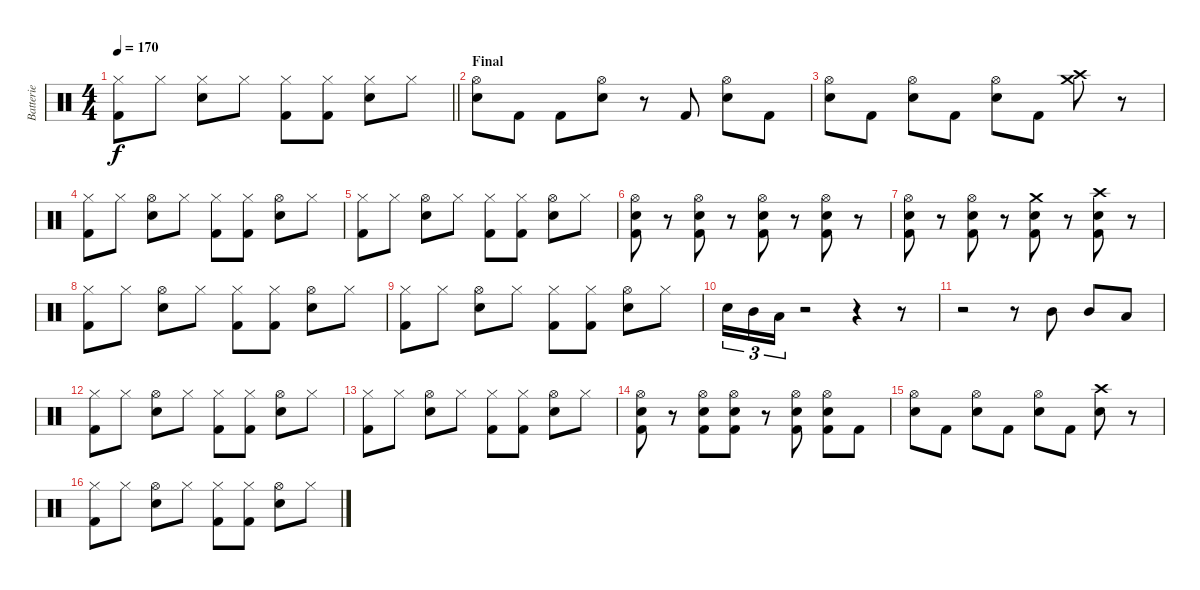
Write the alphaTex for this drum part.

\track ("Batterie" "Batterie") {instrument percussion}
\staff {score}
\articulation defaults
\ts (4 4)
\tempo 170
\clef neutral
\barLineRight lightlight
\ks c
("Kick (hit) 2" "Hi-Hat (closed)").8{dy f} "Hi-Hat (closed)".8 ("Snare (hit) 2" "Hi-Hat (closed)").8 "Hi-Hat (closed)".8 ("Kick (hit) 2" "Hi-Hat (closed)").8 ("Kick (hit) 2" "Hi-Hat (closed)").8 ("Snare (hit) 2" "Hi-Hat (closed)").8 "Hi-Hat (closed)".8 |
\section ("" "Final")
("Snare (hit) 2" "Hi-Hat (open)").8 "Kick (hit) 2".8 "Kick (hit) 2".8 ("Snare (hit) 2" "Hi-Hat (open)").8 r.8 "Kick (hit) 2".8 ("Snare (hit) 2" "Hi-Hat (open)").8 "Kick (hit) 2".8 |
("Snare (hit) 2" "Hi-Hat (open)").8 "Kick (hit) 2".8 ("Snare (hit) 2" "Hi-Hat (open)").8 "Kick (hit) 2".8 ("Snare (hit) 2" "Hi-Hat (open)").8 "Kick (hit) 2".8 ("Crash high (hit)" "Crash medium (hit)").8 r.8 |
("Kick (hit) 2" "Hi-Hat (closed)").8 "Hi-Hat (closed)".8 ("Snare (hit) 2" "Hi-Hat (open)").8 "Hi-Hat (closed)".8 ("Kick (hit) 2" "Hi-Hat (closed)").8 ("Kick (hit) 2" "Hi-Hat (closed)").8 ("Snare (hit) 2" "Hi-Hat (open)").8 "Hi-Hat (closed)".8 |
("Kick (hit) 2" "Hi-Hat (closed)").8 "Hi-Hat (closed)".8 ("Snare (hit) 2" "Hi-Hat (open)").8 "Hi-Hat (closed)".8 ("Kick (hit) 2" "Hi-Hat (closed)").8 ("Kick (hit) 2" "Hi-Hat (closed)").8 ("Snare (hit) 2" "Hi-Hat (open)").8 "Hi-Hat (closed)".8 |
("Kick (hit) 2" "Snare (hit) 2" "Hi-Hat (open)").8 r.8 ("Kick (hit) 2" "Snare (hit) 2" "Hi-Hat (open)").8 r.8 ("Kick (hit) 2" "Snare (hit) 2" "Hi-Hat (open)").8 r.8 ("Kick (hit) 2" "Snare (hit) 2" "Hi-Hat (open)").8 r.8 |
("Kick (hit) 2" "Snare (hit) 2" "Hi-Hat (open)").8 r.8 ("Kick (hit) 2" "Snare (hit) 2" "Hi-Hat (open)").8 r.8 ("Kick (hit) 2" "Snare (hit) 2" "Crash medium (hit)").8 r.8 ("Kick (hit) 2" "Snare (hit) 2" "Crash high (hit)").8 r.8 |
("Kick (hit) 2" "Hi-Hat (closed)").8 "Hi-Hat (closed)".8 ("Snare (hit) 2" "Hi-Hat (open)").8 "Hi-Hat (closed)".8 ("Kick (hit) 2" "Hi-Hat (closed)").8 ("Kick (hit) 2" "Hi-Hat (closed)").8 ("Snare (hit) 2" "Hi-Hat (open)").8 "Hi-Hat (closed)".8 |
("Kick (hit) 2" "Hi-Hat (closed)").8 "Hi-Hat (closed)".8 ("Snare (hit) 2" "Hi-Hat (open)").8 "Hi-Hat (closed)".8 ("Kick (hit) 2" "Hi-Hat (closed)").8 ("Kick (hit) 2" "Hi-Hat (closed)").8 ("Snare (hit) 2" "Hi-Hat (open)").8 "Hi-Hat (closed)".8 |
"Snare (hit) 2".16{tu (3 2)} "Mid Tom (hit)".16{tu (3 2)} "Low Tom (hit)".16{tu (3 2)} r.2 r.4 r.8 |
r.2 r.8 "Mid Tom (hit)".8 "Mid Tom (hit)".8 "Low Tom (hit)".8 |
("Kick (hit) 2" "Hi-Hat (closed)").8 "Hi-Hat (closed)".8 ("Snare (hit) 2" "Hi-Hat (open)").8 "Hi-Hat (closed)".8 ("Kick (hit) 2" "Hi-Hat (closed)").8 ("Kick (hit) 2" "Hi-Hat (closed)").8 ("Snare (hit) 2" "Hi-Hat (open)").8 "Hi-Hat (closed)".8 |
("Kick (hit) 2" "Hi-Hat (closed)").8 "Hi-Hat (closed)".8 ("Snare (hit) 2" "Hi-Hat (open)").8 "Hi-Hat (closed)".8 ("Kick (hit) 2" "Hi-Hat (closed)").8 ("Kick (hit) 2" "Hi-Hat (closed)").8 ("Snare (hit) 2" "Hi-Hat (open)").8 "Hi-Hat (closed)".8 |
("Kick (hit) 2" "Snare (hit) 2" "Hi-Hat (open)").8 r.8 ("Kick (hit) 2" "Snare (hit) 2" "Hi-Hat (open)").8 ("Kick (hit) 2" "Snare (hit) 2" "Hi-Hat (open)").8 r.8 ("Kick (hit) 2" "Snare (hit) 2" "Hi-Hat (open)").8 ("Kick (hit) 2" "Snare (hit) 2" "Hi-Hat (open)").8 "Kick (hit) 2".8 |
("Snare (hit) 2" "Hi-Hat (open)").8 "Kick (hit) 2".8 ("Snare (hit) 2" "Hi-Hat (open)").8 "Kick (hit) 2".8 ("Snare (hit) 2" "Hi-Hat (open)").8 "Kick (hit) 2".8 ("Snare (hit) 2" "Crash high (hit)").8 r.8 |
("Kick (hit) 2" "Hi-Hat (closed)").8 "Hi-Hat (closed)".8 ("Snare (hit) 2" "Hi-Hat (open)").8 "Hi-Hat (closed)".8 ("Kick (hit) 2" "Hi-Hat (closed)").8 ("Kick (hit) 2" "Hi-Hat (closed)").8 ("Snare (hit) 2" "Hi-Hat (open)").8 "Hi-Hat (closed)".8
